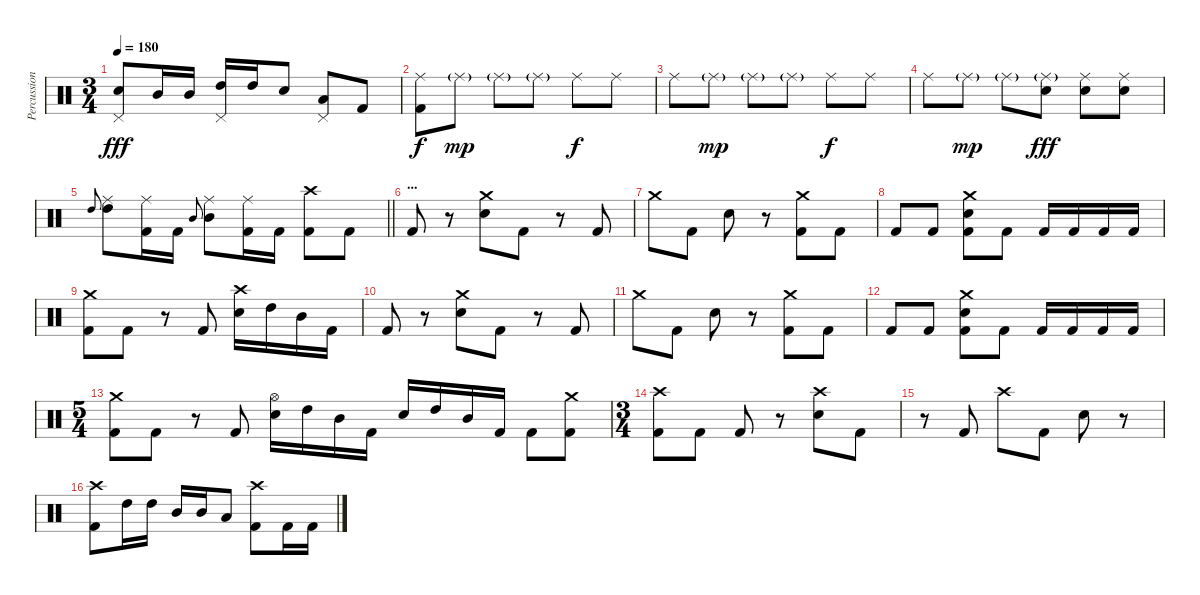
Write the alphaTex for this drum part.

\track ("Percussion" "Percussion") {instrument percussion}
\staff {score}
\articulation defaults
\ts (3 4)
\tempo 180
\clef neutral
\ks c
("Pedal Hi-Hat (hit)" "Electric Snare (hit)").8{dy fff} "Mid Tom (hit)".16 "Mid Tom (hit)".16 ("Pedal Hi-Hat (hit)" "High Tom (hit)").16 "High Tom (hit)".16 "Electric Snare (hit)".8 ("Pedal Hi-Hat (hit)" "Low Tom (hit)").8 "Kick (hit) 2".8 |
("Ride (middle)" "Kick (hit) 2").8{dy f} "Ride (middle)"{g}.8{dy mp} "Ride (middle)"{g}.8 "Ride (middle)"{g}.8 "Ride (middle)".8{dy f} "Ride (middle)".8 |
"Ride (middle)".8 "Ride (middle)"{g}.8{dy mp} "Ride (middle)"{g}.8 "Ride (middle)"{g}.8 "Ride (middle)".8{dy f} "Ride (middle)".8 |
"Ride (middle)".8 "Ride (middle)"{g}.8{dy mp} "Ride (middle)"{g}.8 ("Ride (middle)"{g} "Electric Snare (hit)").8{dy fff} ("Ride (middle)" "Electric Snare (hit)").8 ("Ride (middle)" "Electric Snare (hit)").8 |
\barLineRight lightlight "High Tom (hit)".8{gr onbeat}
("Ride (middle)" "High Tom (hit)").8 ("Ride (middle)" "Kick (hit) 2").16 "Kick (hit) 2".16 "Mid Tom (hit)".8{gr onbeat} ("Ride (middle)" "Mid Tom (hit)").8 ("Ride (middle)" "Kick (hit) 2").16 "Kick (hit) 2".16 ("Crash high (hit)" "Kick (hit) 2").8 "Kick (hit) 2".8 |
\section ("" "...")
"Kick (hit) 2".8 r.8 ("Crash medium (hit)" "Electric Snare (hit)").8 "Kick (hit) 2".8 r.8 "Kick (hit) 2".8 |
"Crash medium (hit)".8 "Kick (hit) 2".8 "Electric Snare (hit)".8 r.8 ("Crash medium (hit)" "Kick (hit) 2").8 "Kick (hit) 2".8 |
"Kick (hit) 2".8 "Kick (hit) 2".8 ("Crash medium (hit)" "Electric Snare (hit)" "Kick (hit) 2").8 "Kick (hit) 2".8 "Kick (hit) 2".16 "Kick (hit) 2".16 "Kick (hit) 2".16 "Kick (hit) 2".16 |
("Crash medium (hit)" "Kick (hit) 2").8 "Kick (hit) 2".8 r.8 "Kick (hit) 2".8 ("Crash high (hit)" "Electric Snare (hit)").16 "High Tom (hit)".16 "Mid Tom (hit)".16 "Kick (hit) 2".16 |
"Kick (hit) 2".8 r.8 ("Crash medium (hit)" "Electric Snare (hit)").8 "Kick (hit) 2".8 r.8 "Kick (hit) 2".8 |
"Crash medium (hit)".8 "Kick (hit) 2".8 "Electric Snare (hit)".8 r.8 ("Crash medium (hit)" "Kick (hit) 2").8 "Kick (hit) 2".8 |
"Kick (hit) 2".8 "Kick (hit) 2".8 ("Crash medium (hit)" "Electric Snare (hit)" "Kick (hit) 2").8 "Kick (hit) 2".8 "Kick (hit) 2".16 "Kick (hit) 2".16 "Kick (hit) 2".16 "Kick (hit) 2".16 |
\ts (5 4)
("Crash medium (hit)" "Kick (hit) 2").8 "Kick (hit) 2".8 r.8 "Kick (hit) 2".8 ("Hi-Hat (open)" "Electric Snare (hit)").16 "High Tom (hit)".16 "Mid Tom (hit)".16 "Kick (hit) 2".16 "Electric Snare (hit)".16 "High Tom (hit)".16 "Mid Tom (hit)".16 "Kick (hit) 2".16 "Kick (hit) 2".8 ("Crash medium (hit)" "Kick (hit) 2").8 |
\ts (3 4)
("Crash high (hit)" "Kick (hit) 2").8 "Kick (hit) 2".8 "Kick (hit) 2".8 r.8 ("Crash high (hit)" "Electric Snare (hit)").8 "Kick (hit) 2".8 |
r.8 "Kick (hit) 2".8 "Crash high (hit)".8 "Kick (hit) 2".8 "Electric Snare (hit)".8 r.8 |
("Crash high (hit)" "Kick (hit) 2").8 "High Tom (hit)".16 "High Tom (hit)".16 "Mid Tom (hit)".16 "Mid Tom (hit)".16 "Low Tom (hit)".8 ("Crash high (hit)" "Kick (hit) 2").8 "Kick (hit) 2".16 "Kick (hit) 2".16
